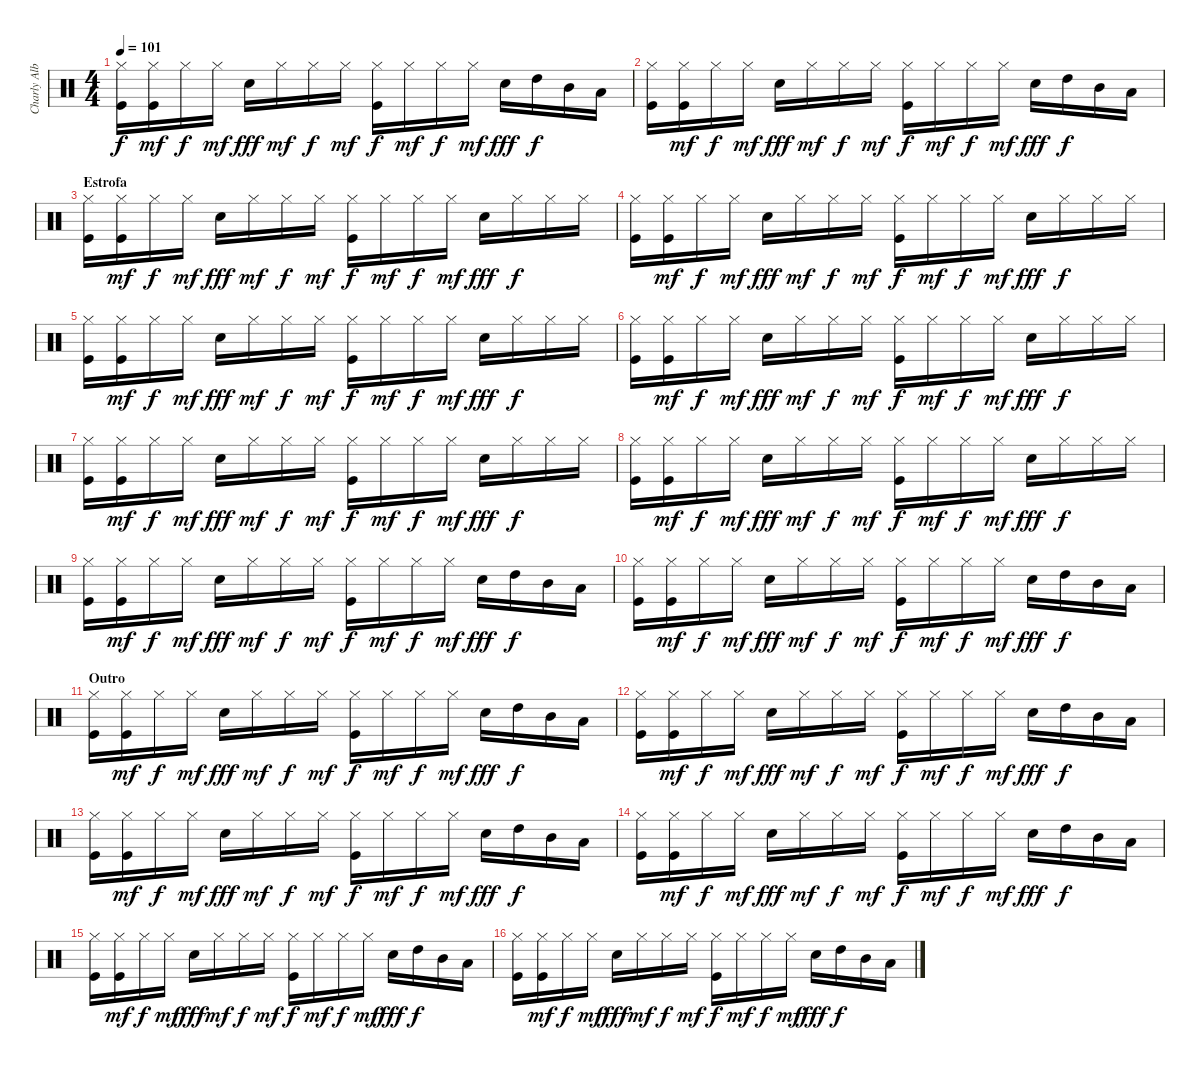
\track ("Charly Alberti" "Charly Alb") {instrument percussion}
\staff {score}
\articulation defaults
\ts (4 4)
\tempo 101
\clef neutral
\ks c
("Kick (hit)" "Hi-Hat (closed)").16{dy f} ("Kick (hit)" "Hi-Hat (closed)").16{dy mf} "Hi-Hat (closed)".16{dy f} "Hi-Hat (closed)".16{dy mf} "Snare (hit) 2".16{dy fff} "Hi-Hat (closed)".16{dy mf} "Hi-Hat (closed)".16{dy f} "Hi-Hat (closed)".16{dy mf} ("Kick (hit)" "Hi-Hat (closed)").16{dy f} "Hi-Hat (closed)".16{dy mf} "Hi-Hat (closed)".16{dy f} "Hi-Hat (closed)".16{dy mf} "Snare (hit) 2".16{dy fff} "High Tom (hit)".16{dy f} "Mid Tom (hit)".16 "Low Tom (hit)".16 |
("Kick (hit)" "Hi-Hat (closed)").16 ("Kick (hit)" "Hi-Hat (closed)").16{dy mf} "Hi-Hat (closed)".16{dy f} "Hi-Hat (closed)".16{dy mf} "Snare (hit) 2".16{dy fff} "Hi-Hat (closed)".16{dy mf} "Hi-Hat (closed)".16{dy f} "Hi-Hat (closed)".16{dy mf} ("Kick (hit)" "Hi-Hat (closed)").16{dy f} "Hi-Hat (closed)".16{dy mf} "Hi-Hat (closed)".16{dy f} "Hi-Hat (closed)".16{dy mf} "Snare (hit) 2".16{dy fff} "High Tom (hit)".16{dy f} "Mid Tom (hit)".16 "Low Tom (hit)".16 |
\section ("" "Estrofa")
("Kick (hit)" "Hi-Hat (closed)").16 ("Kick (hit)" "Hi-Hat (closed)").16{dy mf} "Hi-Hat (closed)".16{dy f} "Hi-Hat (closed)".16{dy mf} "Snare (hit) 2".16{dy fff} "Hi-Hat (closed)".16{dy mf} "Hi-Hat (closed)".16{dy f} "Hi-Hat (closed)".16{dy mf} ("Kick (hit)" "Hi-Hat (closed)").16{dy f} "Hi-Hat (closed)".16{dy mf} "Hi-Hat (closed)".16{dy f} "Hi-Hat (closed)".16{dy mf} "Snare (hit) 2".16{dy fff} "Hi-Hat (closed)".16{dy f} "Hi-Hat (closed)".16 "Hi-Hat (closed)".16 |
("Kick (hit)" "Hi-Hat (closed)").16 ("Kick (hit)" "Hi-Hat (closed)").16{dy mf} "Hi-Hat (closed)".16{dy f} "Hi-Hat (closed)".16{dy mf} "Snare (hit) 2".16{dy fff} "Hi-Hat (closed)".16{dy mf} "Hi-Hat (closed)".16{dy f} "Hi-Hat (closed)".16{dy mf} ("Kick (hit)" "Hi-Hat (closed)").16{dy f} "Hi-Hat (closed)".16{dy mf} "Hi-Hat (closed)".16{dy f} "Hi-Hat (closed)".16{dy mf} "Snare (hit) 2".16{dy fff} "Hi-Hat (closed)".16{dy f} "Hi-Hat (closed)".16 "Hi-Hat (closed)".16 |
("Kick (hit)" "Hi-Hat (closed)").16 ("Kick (hit)" "Hi-Hat (closed)").16{dy mf} "Hi-Hat (closed)".16{dy f} "Hi-Hat (closed)".16{dy mf} "Snare (hit) 2".16{dy fff} "Hi-Hat (closed)".16{dy mf} "Hi-Hat (closed)".16{dy f} "Hi-Hat (closed)".16{dy mf} ("Kick (hit)" "Hi-Hat (closed)").16{dy f} "Hi-Hat (closed)".16{dy mf} "Hi-Hat (closed)".16{dy f} "Hi-Hat (closed)".16{dy mf} "Snare (hit) 2".16{dy fff} "Hi-Hat (closed)".16{dy f} "Hi-Hat (closed)".16 "Hi-Hat (closed)".16 |
("Kick (hit)" "Hi-Hat (closed)").16 ("Kick (hit)" "Hi-Hat (closed)").16{dy mf} "Hi-Hat (closed)".16{dy f} "Hi-Hat (closed)".16{dy mf} "Snare (hit) 2".16{dy fff} "Hi-Hat (closed)".16{dy mf} "Hi-Hat (closed)".16{dy f} "Hi-Hat (closed)".16{dy mf} ("Kick (hit)" "Hi-Hat (closed)").16{dy f} "Hi-Hat (closed)".16{dy mf} "Hi-Hat (closed)".16{dy f} "Hi-Hat (closed)".16{dy mf} "Snare (hit) 2".16{dy fff} "Hi-Hat (closed)".16{dy f} "Hi-Hat (closed)".16 "Hi-Hat (closed)".16 |
("Kick (hit)" "Hi-Hat (closed)").16 ("Kick (hit)" "Hi-Hat (closed)").16{dy mf} "Hi-Hat (closed)".16{dy f} "Hi-Hat (closed)".16{dy mf} "Snare (hit) 2".16{dy fff} "Hi-Hat (closed)".16{dy mf} "Hi-Hat (closed)".16{dy f} "Hi-Hat (closed)".16{dy mf} ("Kick (hit)" "Hi-Hat (closed)").16{dy f} "Hi-Hat (closed)".16{dy mf} "Hi-Hat (closed)".16{dy f} "Hi-Hat (closed)".16{dy mf} "Snare (hit) 2".16{dy fff} "Hi-Hat (closed)".16{dy f} "Hi-Hat (closed)".16 "Hi-Hat (closed)".16 |
("Kick (hit)" "Hi-Hat (closed)").16 ("Kick (hit)" "Hi-Hat (closed)").16{dy mf} "Hi-Hat (closed)".16{dy f} "Hi-Hat (closed)".16{dy mf} "Snare (hit) 2".16{dy fff} "Hi-Hat (closed)".16{dy mf} "Hi-Hat (closed)".16{dy f} "Hi-Hat (closed)".16{dy mf} ("Kick (hit)" "Hi-Hat (closed)").16{dy f} "Hi-Hat (closed)".16{dy mf} "Hi-Hat (closed)".16{dy f} "Hi-Hat (closed)".16{dy mf} "Snare (hit) 2".16{dy fff} "Hi-Hat (closed)".16{dy f} "Hi-Hat (closed)".16 "Hi-Hat (closed)".16 |
("Kick (hit)" "Hi-Hat (closed)").16 ("Kick (hit)" "Hi-Hat (closed)").16{dy mf} "Hi-Hat (closed)".16{dy f} "Hi-Hat (closed)".16{dy mf} "Snare (hit) 2".16{dy fff} "Hi-Hat (closed)".16{dy mf} "Hi-Hat (closed)".16{dy f} "Hi-Hat (closed)".16{dy mf} ("Kick (hit)" "Hi-Hat (closed)").16{dy f} "Hi-Hat (closed)".16{dy mf} "Hi-Hat (closed)".16{dy f} "Hi-Hat (closed)".16{dy mf} "Snare (hit) 2".16{dy fff} "High Tom (hit)".16{dy f} "Mid Tom (hit)".16 "Low Tom (hit)".16 |
("Kick (hit)" "Hi-Hat (closed)").16 ("Kick (hit)" "Hi-Hat (closed)").16{dy mf} "Hi-Hat (closed)".16{dy f} "Hi-Hat (closed)".16{dy mf} "Snare (hit) 2".16{dy fff} "Hi-Hat (closed)".16{dy mf} "Hi-Hat (closed)".16{dy f} "Hi-Hat (closed)".16{dy mf} ("Kick (hit)" "Hi-Hat (closed)").16{dy f} "Hi-Hat (closed)".16{dy mf} "Hi-Hat (closed)".16{dy f} "Hi-Hat (closed)".16{dy mf} "Snare (hit) 2".16{dy fff} "High Tom (hit)".16{dy f} "Mid Tom (hit)".16 "Low Tom (hit)".16 |
\section ("" "Outro")
("Kick (hit)" "Hi-Hat (closed)").16 ("Kick (hit)" "Hi-Hat (closed)").16{dy mf} "Hi-Hat (closed)".16{dy f} "Hi-Hat (closed)".16{dy mf} "Snare (hit) 2".16{dy fff} "Hi-Hat (closed)".16{dy mf} "Hi-Hat (closed)".16{dy f} "Hi-Hat (closed)".16{dy mf} ("Kick (hit)" "Hi-Hat (closed)").16{dy f} "Hi-Hat (closed)".16{dy mf} "Hi-Hat (closed)".16{dy f} "Hi-Hat (closed)".16{dy mf} "Snare (hit) 2".16{dy fff} "High Tom (hit)".16{dy f} "Mid Tom (hit)".16 "Low Tom (hit)".16 |
("Kick (hit)" "Hi-Hat (closed)").16 ("Kick (hit)" "Hi-Hat (closed)").16{dy mf} "Hi-Hat (closed)".16{dy f} "Hi-Hat (closed)".16{dy mf} "Snare (hit) 2".16{dy fff} "Hi-Hat (closed)".16{dy mf} "Hi-Hat (closed)".16{dy f} "Hi-Hat (closed)".16{dy mf} ("Kick (hit)" "Hi-Hat (closed)").16{dy f} "Hi-Hat (closed)".16{dy mf} "Hi-Hat (closed)".16{dy f} "Hi-Hat (closed)".16{dy mf} "Snare (hit) 2".16{dy fff} "High Tom (hit)".16{dy f} "Mid Tom (hit)".16 "Low Tom (hit)".16 |
("Kick (hit)" "Hi-Hat (closed)").16 ("Kick (hit)" "Hi-Hat (closed)").16{dy mf} "Hi-Hat (closed)".16{dy f} "Hi-Hat (closed)".16{dy mf} "Snare (hit) 2".16{dy fff} "Hi-Hat (closed)".16{dy mf} "Hi-Hat (closed)".16{dy f} "Hi-Hat (closed)".16{dy mf} ("Kick (hit)" "Hi-Hat (closed)").16{dy f} "Hi-Hat (closed)".16{dy mf} "Hi-Hat (closed)".16{dy f} "Hi-Hat (closed)".16{dy mf} "Snare (hit) 2".16{dy fff} "High Tom (hit)".16{dy f} "Mid Tom (hit)".16 "Low Tom (hit)".16 |
("Kick (hit)" "Hi-Hat (closed)").16 ("Kick (hit)" "Hi-Hat (closed)").16{dy mf} "Hi-Hat (closed)".16{dy f} "Hi-Hat (closed)".16{dy mf} "Snare (hit) 2".16{dy fff} "Hi-Hat (closed)".16{dy mf} "Hi-Hat (closed)".16{dy f} "Hi-Hat (closed)".16{dy mf} ("Kick (hit)" "Hi-Hat (closed)").16{dy f} "Hi-Hat (closed)".16{dy mf} "Hi-Hat (closed)".16{dy f} "Hi-Hat (closed)".16{dy mf} "Snare (hit) 2".16{dy fff} "High Tom (hit)".16{dy f} "Mid Tom (hit)".16 "Low Tom (hit)".16 |
("Kick (hit)" "Hi-Hat (closed)").16 ("Kick (hit)" "Hi-Hat (closed)").16{dy mf} "Hi-Hat (closed)".16{dy f} "Hi-Hat (closed)".16{dy mf} "Snare (hit) 2".16{dy fff} "Hi-Hat (closed)".16{dy mf} "Hi-Hat (closed)".16{dy f} "Hi-Hat (closed)".16{dy mf} ("Kick (hit)" "Hi-Hat (closed)").16{dy f} "Hi-Hat (closed)".16{dy mf} "Hi-Hat (closed)".16{dy f} "Hi-Hat (closed)".16{dy mf} "Snare (hit) 2".16{dy fff} "High Tom (hit)".16{dy f} "Mid Tom (hit)".16 "Low Tom (hit)".16 |
("Kick (hit)" "Hi-Hat (closed)").16 ("Kick (hit)" "Hi-Hat (closed)").16{dy mf} "Hi-Hat (closed)".16{dy f} "Hi-Hat (closed)".16{dy mf} "Snare (hit) 2".16{dy fff} "Hi-Hat (closed)".16{dy mf} "Hi-Hat (closed)".16{dy f} "Hi-Hat (closed)".16{dy mf} ("Kick (hit)" "Hi-Hat (closed)").16{dy f} "Hi-Hat (closed)".16{dy mf} "Hi-Hat (closed)".16{dy f} "Hi-Hat (closed)".16{dy mf} "Snare (hit) 2".16{dy fff} "High Tom (hit)".16{dy f} "Mid Tom (hit)".16 "Low Tom (hit)".16
